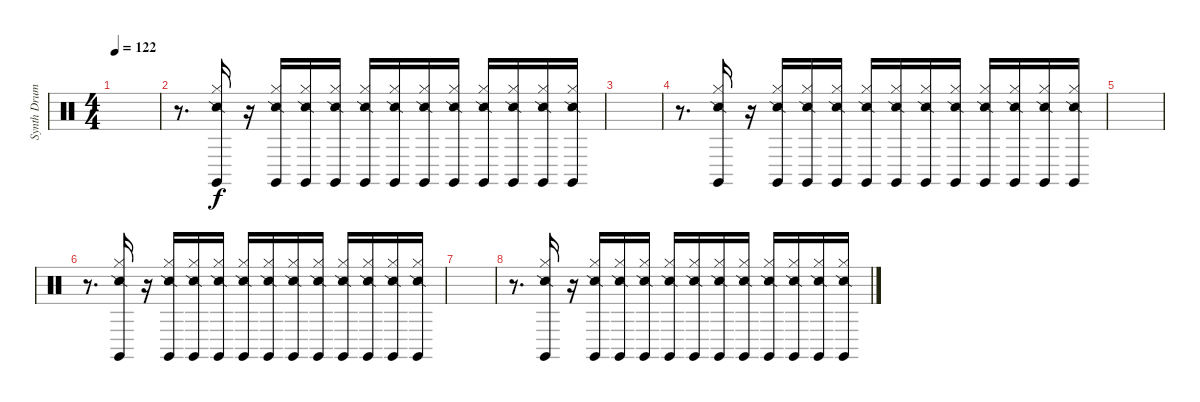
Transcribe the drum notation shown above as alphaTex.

\track ("Synth Drums" "Synth Drum") {instrument percussion}
\staff {score}
\articulation defaults
\ts (4 4)
\tempo 122
\clef neutral
\ks c
|
r.8{d} ("Hi-Hat (closed)" "Snare (side stick) 2" "Claves (hit)").16 r.16 ("Hi-Hat (closed)" "Snare (side stick) 2" "Claves (hit)").16 ("Hi-Hat (closed)" "Snare (side stick) 2" "Claves (hit)").16 ("Hi-Hat (closed)" "Snare (side stick) 2" "Claves (hit)").16 ("Hi-Hat (closed)" "Snare (side stick) 2" "Claves (hit)").16 ("Hi-Hat (closed)" "Snare (side stick) 2" "Claves (hit)").16 ("Hi-Hat (closed)" "Snare (side stick) 2" "Claves (hit)").16 ("Hi-Hat (closed)" "Snare (side stick) 2" "Claves (hit)").16 ("Hi-Hat (closed)" "Snare (side stick) 2" "Claves (hit)").16 ("Hi-Hat (closed)" "Snare (side stick) 2" "Claves (hit)").16 ("Hi-Hat (closed)" "Snare (side stick) 2" "Claves (hit)").16 ("Hi-Hat (closed)" "Snare (side stick) 2" "Claves (hit)").16 |
|
r.8{d} ("Hi-Hat (closed)" "Snare (side stick) 2" "Claves (hit)").16 r.16 ("Hi-Hat (closed)" "Snare (side stick) 2" "Claves (hit)").16 ("Hi-Hat (closed)" "Snare (side stick) 2" "Claves (hit)").16 ("Hi-Hat (closed)" "Snare (side stick) 2" "Claves (hit)").16 ("Hi-Hat (closed)" "Snare (side stick) 2" "Claves (hit)").16 ("Hi-Hat (closed)" "Snare (side stick) 2" "Claves (hit)").16 ("Hi-Hat (closed)" "Snare (side stick) 2" "Claves (hit)").16 ("Hi-Hat (closed)" "Snare (side stick) 2" "Claves (hit)").16 ("Hi-Hat (closed)" "Snare (side stick) 2" "Claves (hit)").16 ("Hi-Hat (closed)" "Snare (side stick) 2" "Claves (hit)").16 ("Hi-Hat (closed)" "Snare (side stick) 2" "Claves (hit)").16 ("Hi-Hat (closed)" "Snare (side stick) 2" "Claves (hit)").16 |
|
r.8{d} ("Hi-Hat (closed)" "Snare (side stick) 2" "Claves (hit)").16 r.16 ("Hi-Hat (closed)" "Snare (side stick) 2" "Claves (hit)").16 ("Hi-Hat (closed)" "Snare (side stick) 2" "Claves (hit)").16 ("Hi-Hat (closed)" "Snare (side stick) 2" "Claves (hit)").16 ("Hi-Hat (closed)" "Snare (side stick) 2" "Claves (hit)").16 ("Hi-Hat (closed)" "Snare (side stick) 2" "Claves (hit)").16 ("Hi-Hat (closed)" "Snare (side stick) 2" "Claves (hit)").16 ("Hi-Hat (closed)" "Snare (side stick) 2" "Claves (hit)").16 ("Hi-Hat (closed)" "Snare (side stick) 2" "Claves (hit)").16 ("Hi-Hat (closed)" "Snare (side stick) 2" "Claves (hit)").16 ("Hi-Hat (closed)" "Snare (side stick) 2" "Claves (hit)").16 ("Hi-Hat (closed)" "Snare (side stick) 2" "Claves (hit)").16 |
|
r.8{d} ("Hi-Hat (closed)" "Snare (side stick) 2" "Claves (hit)").16 r.16 ("Hi-Hat (closed)" "Snare (side stick) 2" "Claves (hit)").16 ("Hi-Hat (closed)" "Snare (side stick) 2" "Claves (hit)").16 ("Hi-Hat (closed)" "Snare (side stick) 2" "Claves (hit)").16 ("Hi-Hat (closed)" "Snare (side stick) 2" "Claves (hit)").16 ("Hi-Hat (closed)" "Snare (side stick) 2" "Claves (hit)").16 ("Hi-Hat (closed)" "Snare (side stick) 2" "Claves (hit)").16 ("Hi-Hat (closed)" "Snare (side stick) 2" "Claves (hit)").16 ("Hi-Hat (closed)" "Snare (side stick) 2" "Claves (hit)").16 ("Hi-Hat (closed)" "Snare (side stick) 2" "Claves (hit)").16 ("Hi-Hat (closed)" "Snare (side stick) 2" "Claves (hit)").16 ("Hi-Hat (closed)" "Snare (side stick) 2" "Claves (hit)").16
